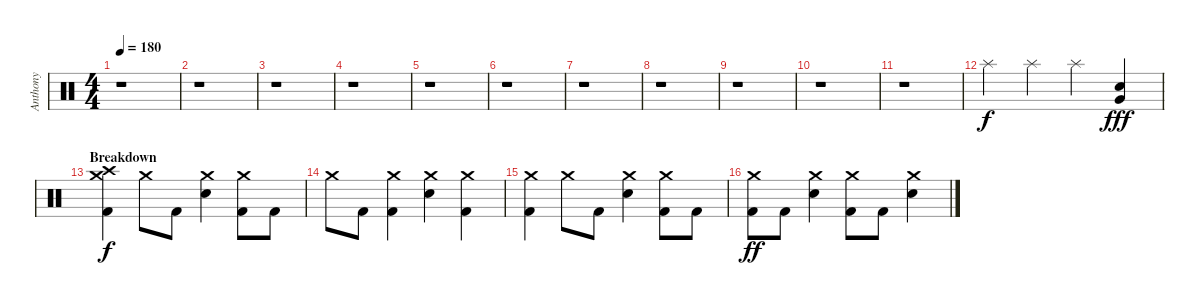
\track ("Anthony" "Anthony") {instrument percussion}
\staff {score}
\articulation defaults
\ts (4 4)
\tempo 180
\clef neutral
\ks c
r.1{dy f} |
r.1 |
r.1 |
r.1 |
r.1 |
r.1 |
r.1 |
r.1 |
r.1 |
r.1 |
r.1 |
"Splash (hit)".4 "Splash (hit)".4 "Splash (hit)".4 ("Very Low Tom (hit)" "Electric Snare (hit)").4{dy fff} |
\section ("" "Breakdown")
("Crash medium (hit)" "Crash high (hit)" "Kick (hit) 2").4{dy f} "Crash medium (hit)".8 "Kick (hit) 2".8 ("Crash medium (hit)" "Electric Snare (hit)").4 ("Crash medium (hit)" "Kick (hit) 2").8 "Kick (hit) 2".8 |
"Crash medium (hit)".8 "Kick (hit) 2".8 ("Crash medium (hit)" "Kick (hit) 2").4 ("Crash medium (hit)" "Electric Snare (hit)").4 ("Crash medium (hit)" "Kick (hit) 2").4 |
("Crash medium (hit)" "Kick (hit) 2").4 "Crash medium (hit)".8 "Kick (hit) 2".8 ("Crash medium (hit)" "Electric Snare (hit)").4 ("Crash medium (hit)" "Kick (hit) 2").8 "Kick (hit) 2".8 |
("Crash medium (hit)" "Kick (hit) 2").8{dy ff} "Kick (hit) 2".8 ("Crash medium (hit)" "Electric Snare (hit)").4 ("Crash medium (hit)" "Kick (hit) 2").8 "Kick (hit) 2".8 ("Crash medium (hit)" "Electric Snare (hit)").4
